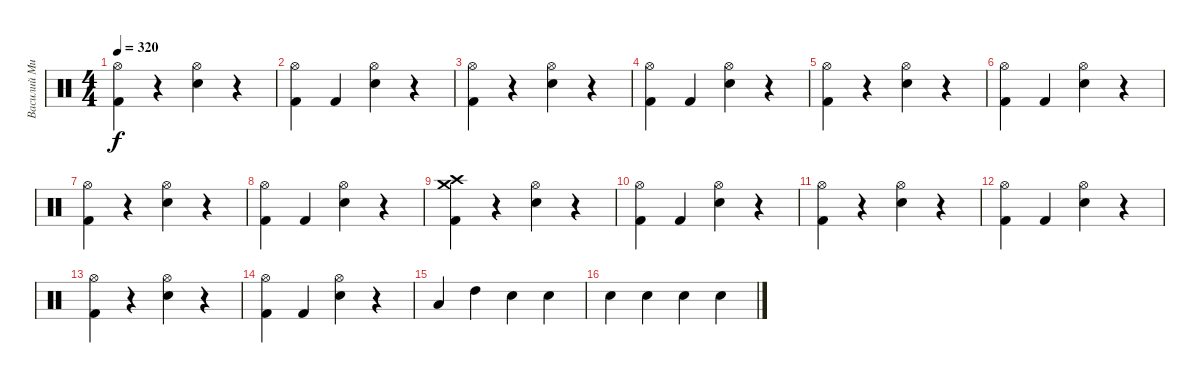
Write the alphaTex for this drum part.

\track ("Василий Михалыч-ударные" "Василий Ми") {instrument percussion}
\staff {score}
\articulation defaults
\ts (4 4)
\tempo 320
\clef neutral
\ks c
("Kick (hit) 2" "Hi-Hat (open)").4{dy f} r.4 ("Snare (hit) 2" "Hi-Hat (open)").4 r.4 |
("Kick (hit) 2" "Hi-Hat (open)").4 "Kick (hit) 2".4 ("Snare (hit) 2" "Hi-Hat (open)").4 r.4 |
("Kick (hit) 2" "Hi-Hat (open)").4 r.4 ("Snare (hit) 2" "Hi-Hat (open)").4 r.4 |
("Kick (hit) 2" "Hi-Hat (open)").4 "Kick (hit) 2".4 ("Snare (hit) 2" "Hi-Hat (open)").4 r.4 |
("Kick (hit) 2" "Hi-Hat (open)").4 r.4 ("Snare (hit) 2" "Hi-Hat (open)").4 r.4 |
("Kick (hit) 2" "Hi-Hat (open)").4 "Kick (hit) 2".4 ("Snare (hit) 2" "Hi-Hat (open)").4 r.4 |
("Kick (hit) 2" "Hi-Hat (open)").4 r.4 ("Snare (hit) 2" "Hi-Hat (open)").4 r.4 |
("Kick (hit) 2" "Hi-Hat (open)").4 "Kick (hit) 2".4 ("Snare (hit) 2" "Hi-Hat (open)").4 r.4 |
("Kick (hit) 2" "Crash high (hit)" "Crash medium (hit)").4 r.4 ("Snare (hit) 2" "Hi-Hat (open)").4 r.4 |
("Kick (hit) 2" "Hi-Hat (open)").4 "Kick (hit) 2".4 ("Snare (hit) 2" "Hi-Hat (open)").4 r.4 |
("Kick (hit) 2" "Hi-Hat (open)").4 r.4 ("Snare (hit) 2" "Hi-Hat (open)").4 r.4 |
("Kick (hit) 2" "Hi-Hat (open)").4 "Kick (hit) 2".4 ("Snare (hit) 2" "Hi-Hat (open)").4 r.4 |
("Kick (hit) 2" "Hi-Hat (open)").4 r.4 ("Snare (hit) 2" "Hi-Hat (open)").4 r.4 |
("Kick (hit) 2" "Hi-Hat (open)").4 "Kick (hit) 2".4 ("Snare (hit) 2" "Hi-Hat (open)").4 r.4 |
"Low Tom (hit)".4 "High Tom (hit)".4 "Snare (hit) 2".4 "Snare (hit) 2".4 |
"Snare (hit) 2".4 "Snare (hit) 2".4 "Snare (hit) 2".4 "Snare (hit) 2".4
